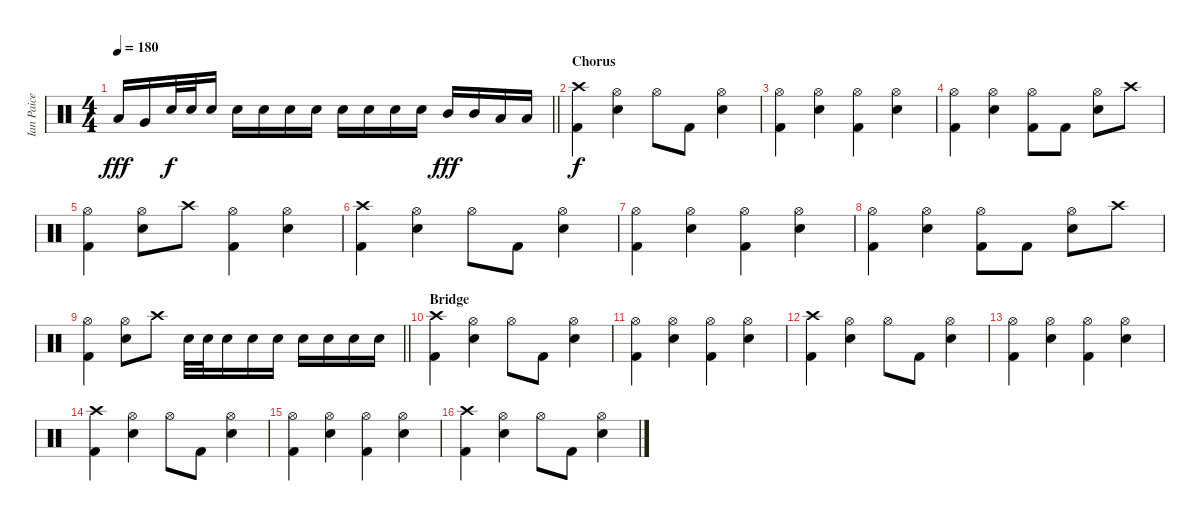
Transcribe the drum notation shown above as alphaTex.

\track ("Ian Paice" "Ian Paice") {instrument percussion}
\staff {score}
\articulation defaults
\ts (4 4)
\tempo 180
\clef neutral
\barLineRight lightlight
\ks aminor "Low Tom (hit)".16{dy fff} "Very Low Tom (hit)".16 "Snare (hit) 2".32{dy f} "Snare (hit) 2".32 "Snare (hit) 2".16 "Snare (hit) 2".16 "Snare (hit) 2".16 "Snare (hit) 2".16 "Snare (hit) 2".16 "Snare (hit) 2".16 "Snare (hit) 2".16 "Snare (hit) 2".16 "Snare (hit) 2".16 "Mid Tom (hit)".16{dy fff} "Mid Tom (hit)".16 "Low Tom (hit)".16 "Low Tom (hit)".16
|
\section ("" "Chorus")
\ks c
("Crash high (hit)" "Kick (hit) 2").4{dy f} ("Hi-Hat (open)" "Snare (hit) 2").4 "Hi-Hat (open)".8 "Kick (hit) 2".8 ("Hi-Hat (open)" "Snare (hit) 2").4 |
("Hi-Hat (open)" "Kick (hit) 2").4 ("Hi-Hat (open)" "Snare (hit) 2").4 ("Hi-Hat (open)" "Kick (hit) 2").4 ("Hi-Hat (open)" "Snare (hit) 2").4 |
("Hi-Hat (open)" "Kick (hit) 2").4 ("Hi-Hat (open)" "Snare (hit) 2").4 ("Hi-Hat (open)" "Kick (hit) 2").8 "Kick (hit) 2".8 ("Hi-Hat (open)" "Snare (hit) 2").8 "Crash high (hit)".8 |
("Hi-Hat (open)" "Kick (hit) 2").4 ("Hi-Hat (open)" "Snare (hit) 2").8 "Crash high (hit)".8 ("Hi-Hat (open)" "Kick (hit) 2").4 ("Hi-Hat (open)" "Snare (hit) 2").4 |
("Crash high (hit)" "Kick (hit) 2").4 ("Hi-Hat (open)" "Snare (hit) 2").4 "Hi-Hat (open)".8 "Kick (hit) 2".8 ("Hi-Hat (open)" "Snare (hit) 2").4 |
("Hi-Hat (open)" "Kick (hit) 2").4 ("Hi-Hat (open)" "Snare (hit) 2").4 ("Hi-Hat (open)" "Kick (hit) 2").4 ("Hi-Hat (open)" "Snare (hit) 2").4 |
("Hi-Hat (open)" "Kick (hit) 2").4 ("Hi-Hat (open)" "Snare (hit) 2").4 ("Hi-Hat (open)" "Kick (hit) 2").8 "Kick (hit) 2".8 ("Hi-Hat (open)" "Snare (hit) 2").8 "Crash high (hit)".8 |
\barLineRight lightlight
("Hi-Hat (open)" "Kick (hit) 2").4 ("Hi-Hat (open)" "Snare (hit) 2").8 "Crash high (hit)".8 "Snare (hit) 2".32 "Snare (hit) 2".32 "Snare (hit) 2".16 "Snare (hit) 2".16 "Snare (hit) 2".16 "Snare (hit) 2".16 "Snare (hit) 2".16 "Snare (hit) 2".16 "Snare (hit) 2".16 |
\section ("" "Bridge")
\ks aminor
("Crash high (hit)" "Kick (hit) 2").4 ("Hi-Hat (open)" "Snare (hit) 2").4 "Hi-Hat (open)".8 "Kick (hit) 2".8 ("Hi-Hat (open)" "Snare (hit) 2").4 |
("Hi-Hat (open)" "Kick (hit) 2").4 ("Hi-Hat (open)" "Snare (hit) 2").4 ("Hi-Hat (open)" "Kick (hit) 2").4 ("Hi-Hat (open)" "Snare (hit) 2").4 |
("Crash high (hit)" "Kick (hit) 2").4 ("Hi-Hat (open)" "Snare (hit) 2").4 "Hi-Hat (open)".8 "Kick (hit) 2".8 ("Hi-Hat (open)" "Snare (hit) 2").4 |
("Hi-Hat (open)" "Kick (hit) 2").4 ("Hi-Hat (open)" "Snare (hit) 2").4 ("Hi-Hat (open)" "Kick (hit) 2").4 ("Hi-Hat (open)" "Snare (hit) 2").4 |
("Crash high (hit)" "Kick (hit) 2").4 ("Hi-Hat (open)" "Snare (hit) 2").4 "Hi-Hat (open)".8 "Kick (hit) 2".8 ("Hi-Hat (open)" "Snare (hit) 2").4 |
("Hi-Hat (open)" "Kick (hit) 2").4 ("Hi-Hat (open)" "Snare (hit) 2").4 ("Hi-Hat (open)" "Kick (hit) 2").4 ("Hi-Hat (open)" "Snare (hit) 2").4 |
("Crash high (hit)" "Kick (hit) 2").4 ("Hi-Hat (open)" "Snare (hit) 2").4 "Hi-Hat (open)".8 "Kick (hit) 2".8 ("Hi-Hat (open)" "Snare (hit) 2").4
